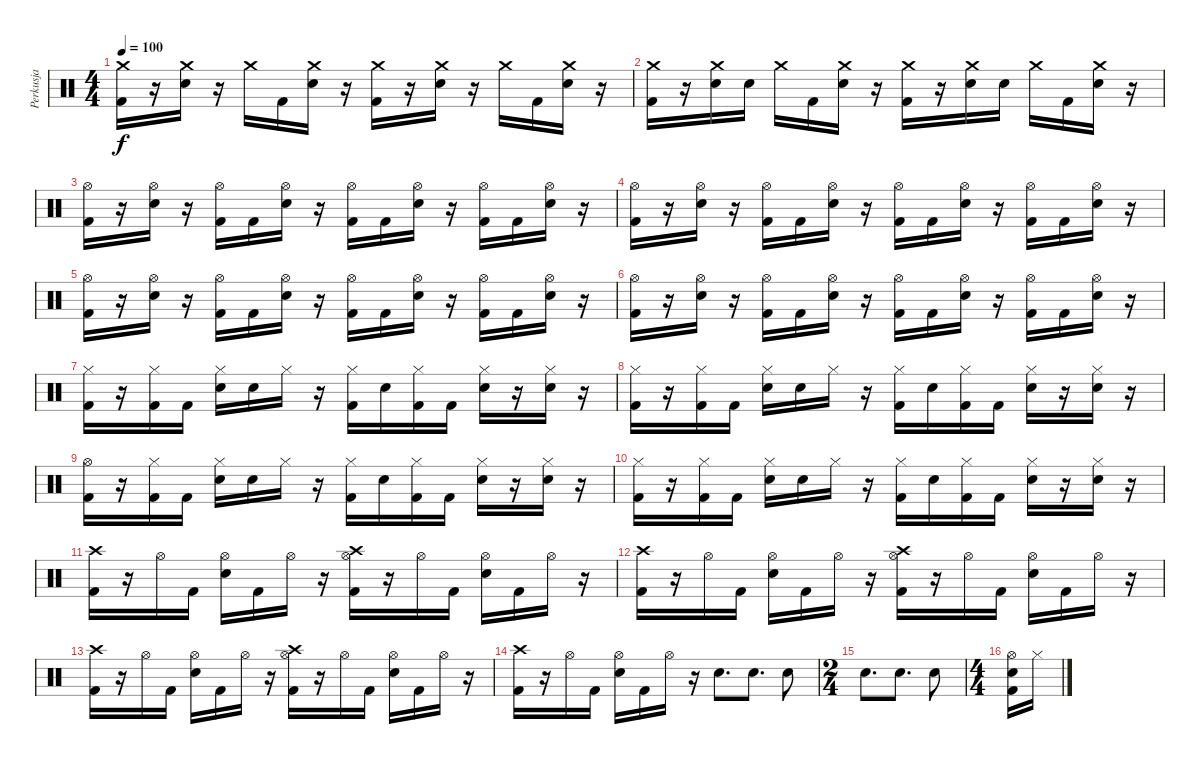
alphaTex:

\track ("Perkusja" "Perkusja") {instrument percussion}
\staff {score}
\articulation defaults
\ts (4 4)
\tempo 100
\clef neutral
\ks c
("Crash medium (hit)" "Kick (hit) 2").16{dy f} r.16 ("Crash medium (hit)" "Electric Snare (hit)").16 r.16 "Crash medium (hit)".16 "Kick (hit) 2".16 ("Crash medium (hit)" "Electric Snare (hit)").16 r.16 ("Crash medium (hit)" "Kick (hit) 2").16 r.16 ("Crash medium (hit)" "Electric Snare (hit)").16 r.16 "Crash medium (hit)".16 "Kick (hit) 2".16 ("Crash medium (hit)" "Electric Snare (hit)").16 r.16 |
("Crash medium (hit)" "Kick (hit) 2").16 r.16 ("Crash medium (hit)" "Electric Snare (hit)").16 "Electric Snare (hit)".16 "Crash medium (hit)".16 "Kick (hit) 2".16 ("Crash medium (hit)" "Electric Snare (hit)").16 r.16 ("Crash medium (hit)" "Kick (hit) 2").16 r.16 ("Crash medium (hit)" "Electric Snare (hit)").16 "Electric Snare (hit)".16 "Crash medium (hit)".16 "Kick (hit) 2".16 ("Crash medium (hit)" "Electric Snare (hit)").16 r.16 |
("Hi-Hat (open)" "Kick (hit) 2").16 r.16 ("Hi-Hat (open)" "Electric Snare (hit)").16 r.16 ("Hi-Hat (open)" "Kick (hit) 2").16 "Kick (hit) 2".16 ("Hi-Hat (open)" "Electric Snare (hit)").16 r.16 ("Hi-Hat (open)" "Kick (hit) 2").16 "Kick (hit) 2".16 ("Hi-Hat (open)" "Electric Snare (hit)").16 r.16 ("Hi-Hat (open)" "Kick (hit) 2").16 "Kick (hit) 2".16 ("Hi-Hat (open)" "Electric Snare (hit)").16 r.16 |
("Hi-Hat (open)" "Kick (hit) 2").16 r.16 ("Hi-Hat (open)" "Electric Snare (hit)").16 r.16 ("Hi-Hat (open)" "Kick (hit) 2").16 "Kick (hit) 2".16 ("Hi-Hat (open)" "Electric Snare (hit)").16 r.16 ("Hi-Hat (open)" "Kick (hit) 2").16 "Kick (hit) 2".16 ("Hi-Hat (open)" "Electric Snare (hit)").16 r.16 ("Hi-Hat (open)" "Kick (hit) 2").16 "Kick (hit) 2".16 ("Hi-Hat (open)" "Electric Snare (hit)").16 r.16 |
("Hi-Hat (open)" "Kick (hit) 2").16 r.16 ("Hi-Hat (open)" "Electric Snare (hit)").16 r.16 ("Hi-Hat (open)" "Kick (hit) 2").16 "Kick (hit) 2".16 ("Hi-Hat (open)" "Electric Snare (hit)").16 r.16 ("Hi-Hat (open)" "Kick (hit) 2").16 "Kick (hit) 2".16 ("Hi-Hat (open)" "Electric Snare (hit)").16 r.16 ("Hi-Hat (open)" "Kick (hit) 2").16 "Kick (hit) 2".16 ("Hi-Hat (open)" "Electric Snare (hit)").16 r.16 |
("Hi-Hat (open)" "Kick (hit) 2").16 r.16 ("Hi-Hat (open)" "Electric Snare (hit)").16 r.16 ("Hi-Hat (open)" "Kick (hit) 2").16 "Kick (hit) 2".16 ("Hi-Hat (open)" "Electric Snare (hit)").16 r.16 ("Hi-Hat (open)" "Kick (hit) 2").16 "Kick (hit) 2".16 ("Hi-Hat (open)" "Electric Snare (hit)").16 r.16 ("Hi-Hat (open)" "Kick (hit) 2").16 "Kick (hit) 2".16 ("Hi-Hat (open)" "Electric Snare (hit)").16 r.16 |
("Hi-Hat (closed)" "Kick (hit) 2").16 r.16 ("Hi-Hat (closed)" "Kick (hit) 2").16 "Kick (hit) 2".16 ("Hi-Hat (closed)" "Electric Snare (hit)").16 "Electric Snare (hit)".16 "Hi-Hat (closed)".16 r.16 ("Hi-Hat (closed)" "Kick (hit) 2").16 "Electric Snare (hit)".16 ("Hi-Hat (closed)" "Kick (hit) 2").16 "Kick (hit) 2".16 ("Hi-Hat (closed)" "Electric Snare (hit)").16 r.16 ("Hi-Hat (closed)" "Electric Snare (hit)").16 r.16 |
("Hi-Hat (closed)" "Kick (hit) 2").16 r.16 ("Hi-Hat (closed)" "Kick (hit) 2").16 "Kick (hit) 2".16 ("Hi-Hat (closed)" "Electric Snare (hit)").16 "Electric Snare (hit)".16 "Hi-Hat (closed)".16 r.16 ("Hi-Hat (closed)" "Kick (hit) 2").16 "Electric Snare (hit)".16 ("Hi-Hat (closed)" "Kick (hit) 2").16 "Kick (hit) 2".16 ("Hi-Hat (closed)" "Electric Snare (hit)").16 r.16 ("Hi-Hat (closed)" "Electric Snare (hit)").16 r.16 |
("Hi-Hat (open)" "Kick (hit) 2").16 r.16 ("Hi-Hat (closed)" "Kick (hit) 2").16 "Kick (hit) 2".16 ("Hi-Hat (closed)" "Electric Snare (hit)").16 "Electric Snare (hit)".16 "Hi-Hat (closed)".16 r.16 ("Hi-Hat (closed)" "Kick (hit) 2").16 "Electric Snare (hit)".16 ("Hi-Hat (closed)" "Kick (hit) 2").16 "Kick (hit) 2".16 ("Hi-Hat (closed)" "Electric Snare (hit)").16 r.16 ("Hi-Hat (closed)" "Electric Snare (hit)").16 r.16 |
("Hi-Hat (closed)" "Kick (hit) 2").16 r.16 ("Hi-Hat (closed)" "Kick (hit) 2").16 "Kick (hit) 2".16 ("Hi-Hat (closed)" "Electric Snare (hit)").16 "Electric Snare (hit)".16 "Hi-Hat (closed)".16 r.16 ("Hi-Hat (closed)" "Kick (hit) 2").16 "Electric Snare (hit)".16 ("Hi-Hat (closed)" "Kick (hit) 2").16 "Kick (hit) 2".16 ("Hi-Hat (closed)" "Electric Snare (hit)").16 r.16 ("Hi-Hat (closed)" "Electric Snare (hit)").16 r.16 |
("Crash high (hit)" "Kick (hit) 2").16 r.16 "Hi-Hat (open)".16 "Kick (hit) 2".16 ("Hi-Hat (open)" "Electric Snare (hit)").16 "Kick (hit) 2".16 "Hi-Hat (open)".16 r.16 ("Crash high (hit)" "Hi-Hat (open)" "Kick (hit) 2").16 r.16 "Hi-Hat (open)".16 "Kick (hit) 2".16 ("Hi-Hat (open)" "Electric Snare (hit)").16 "Kick (hit) 2".16 "Hi-Hat (open)".16 r.16 |
("Crash high (hit)" "Kick (hit) 2").16 r.16 "Hi-Hat (open)".16 "Kick (hit) 2".16 ("Hi-Hat (open)" "Electric Snare (hit)").16 "Kick (hit) 2".16 "Hi-Hat (open)".16 r.16 ("Crash high (hit)" "Hi-Hat (open)" "Kick (hit) 2").16 r.16 "Hi-Hat (open)".16 "Kick (hit) 2".16 ("Hi-Hat (open)" "Electric Snare (hit)").16 "Kick (hit) 2".16 "Hi-Hat (open)".16 r.16 |
("Crash high (hit)" "Kick (hit) 2").16 r.16 "Hi-Hat (open)".16 "Kick (hit) 2".16 ("Hi-Hat (open)" "Electric Snare (hit)").16 "Kick (hit) 2".16 "Hi-Hat (open)".16 r.16 ("Crash high (hit)" "Hi-Hat (open)" "Kick (hit) 2").16 r.16 "Hi-Hat (open)".16 "Kick (hit) 2".16 ("Hi-Hat (open)" "Electric Snare (hit)").16 "Kick (hit) 2".16 "Hi-Hat (open)".16 r.16 |
("Crash high (hit)" "Kick (hit) 2").16 r.16 "Hi-Hat (open)".16 "Kick (hit) 2".16 ("Hi-Hat (open)" "Electric Snare (hit)").16 "Kick (hit) 2".16 "Hi-Hat (open)".16 r.16 "Electric Snare (hit)".8{d} "Electric Snare (hit)".8{d} "Electric Snare (hit)".8 |
\ts (2 4)
"Electric Snare (hit)".8{d} "Electric Snare (hit)".8{d} "Electric Snare (hit)".8 |
\ts (4 4)
("Hi-Hat (open)" "Electric Snare (hit)" "Kick (hit) 2").16 "Hi-Hat (closed)".16
